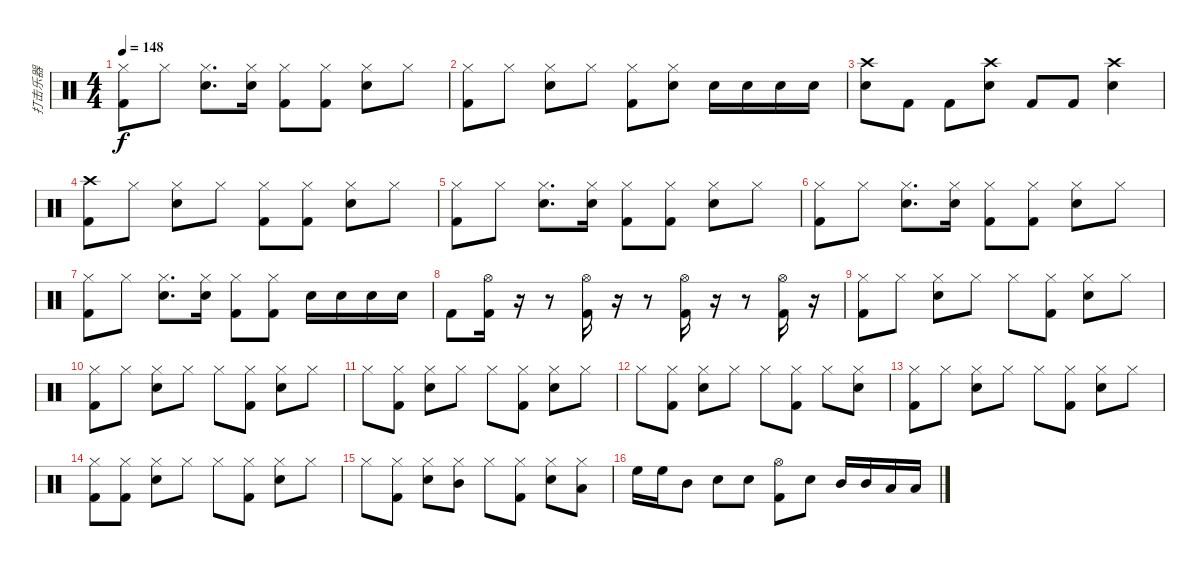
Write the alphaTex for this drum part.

\track ("打击乐器" "打击乐器") {instrument percussion}
\staff {score}
\articulation defaults
\ts (4 4)
\tempo 148
\clef neutral
\ks c
("Hi-Hat (closed)" "Kick (hit) 2").8{dy f} "Hi-Hat (closed)".8 ("Hi-Hat (closed)" "Electric Snare (hit)").8{d} ("Hi-Hat (closed)" "Electric Snare (hit)").16 ("Hi-Hat (closed)" "Kick (hit) 2").8 ("Hi-Hat (closed)" "Kick (hit) 2").8 ("Hi-Hat (closed)" "Electric Snare (hit)").8 "Hi-Hat (closed)".8 |
("Hi-Hat (closed)" "Kick (hit) 2").8 "Hi-Hat (closed)".8 ("Hi-Hat (closed)" "Electric Snare (hit)").8 "Hi-Hat (closed)".8 ("Hi-Hat (closed)" "Kick (hit) 2").8 ("Hi-Hat (closed)" "Electric Snare (hit)").8 "Electric Snare (hit)".16 "Electric Snare (hit)".16 "Electric Snare (hit)".16 "Electric Snare (hit)".16 |
("Crash high (hit)" "Electric Snare (hit)").8 "Kick (hit) 2".8 "Kick (hit) 2".8 ("Crash high (hit)" "Electric Snare (hit)").8 "Kick (hit) 2".8 "Kick (hit) 2".8 ("Crash high (hit)" "Electric Snare (hit)").4 |
("Crash high (hit)" "Kick (hit) 2").8 "Hi-Hat (closed)".8 ("Hi-Hat (closed)" "Electric Snare (hit)").8 "Hi-Hat (closed)".8 ("Hi-Hat (closed)" "Kick (hit) 2").8 ("Hi-Hat (closed)" "Kick (hit) 2").8 ("Hi-Hat (closed)" "Electric Snare (hit)").8 "Hi-Hat (closed)".8 |
("Hi-Hat (closed)" "Kick (hit) 2").8 "Hi-Hat (closed)".8 ("Hi-Hat (closed)" "Electric Snare (hit)").8{d} ("Hi-Hat (closed)" "Electric Snare (hit)").16 ("Hi-Hat (closed)" "Kick (hit) 2").8 ("Hi-Hat (closed)" "Kick (hit) 2").8 ("Hi-Hat (closed)" "Electric Snare (hit)").8 "Hi-Hat (closed)".8 |
("Hi-Hat (closed)" "Kick (hit) 2").8 "Hi-Hat (closed)".8 ("Hi-Hat (closed)" "Electric Snare (hit)").8{d} ("Hi-Hat (closed)" "Electric Snare (hit)").16 ("Hi-Hat (closed)" "Kick (hit) 2").8 ("Hi-Hat (closed)" "Kick (hit) 2").8 ("Hi-Hat (closed)" "Electric Snare (hit)").8 "Hi-Hat (closed)".8 |
("Hi-Hat (closed)" "Kick (hit) 2").8 "Hi-Hat (closed)".8 ("Hi-Hat (closed)" "Electric Snare (hit)").8{d} ("Hi-Hat (closed)" "Electric Snare (hit)").16 ("Hi-Hat (closed)" "Kick (hit) 2").8 ("Hi-Hat (closed)" "Kick (hit) 2").8 "Electric Snare (hit)".16 "Electric Snare (hit)".16 "Electric Snare (hit)".16 "Electric Snare (hit)".16 |
"Kick (hit) 2".8 ("Hi-Hat (open)" "Kick (hit) 2").16 r.16 r.8 ("Hi-Hat (open)" "Kick (hit) 2").16 r.16 r.8 ("Hi-Hat (open)" "Kick (hit) 2").16 r.16 r.8 ("Hi-Hat (open)" "Kick (hit) 2").16 r.16 |
("Hi-Hat (closed)" "Kick (hit) 2").8 "Hi-Hat (closed)".8 ("Hi-Hat (closed)" "Electric Snare (hit)").8 "Hi-Hat (closed)".8 "Hi-Hat (closed)".8 ("Hi-Hat (closed)" "Kick (hit) 2").8 ("Hi-Hat (closed)" "Electric Snare (hit)").8 "Hi-Hat (closed)".8 |
("Hi-Hat (closed)" "Kick (hit) 2").8 "Hi-Hat (closed)".8 ("Hi-Hat (closed)" "Electric Snare (hit)").8 "Hi-Hat (closed)".8 "Hi-Hat (closed)".8 ("Hi-Hat (closed)" "Kick (hit) 2").8 ("Hi-Hat (closed)" "Electric Snare (hit)").8 "Hi-Hat (closed)".8 |
"Hi-Hat (closed)".8 ("Hi-Hat (closed)" "Kick (hit) 2").8 ("Hi-Hat (closed)" "Electric Snare (hit)").8 "Hi-Hat (closed)".8 "Hi-Hat (closed)".8 ("Hi-Hat (closed)" "Kick (hit) 2").8 ("Hi-Hat (closed)" "Electric Snare (hit)").8 "Hi-Hat (closed)".8 |
"Hi-Hat (closed)".8 ("Hi-Hat (closed)" "Kick (hit) 2").8 ("Hi-Hat (closed)" "Electric Snare (hit)").8 "Hi-Hat (closed)".8 "Hi-Hat (closed)".8 ("Hi-Hat (closed)" "Kick (hit) 2").8 "Hi-Hat (closed)".8 ("Hi-Hat (closed)" "Electric Snare (hit)").8 |
("Hi-Hat (closed)" "Kick (hit) 2").8 "Hi-Hat (closed)".8 ("Hi-Hat (closed)" "Electric Snare (hit)").8 "Hi-Hat (closed)".8 "Hi-Hat (closed)".8 ("Hi-Hat (closed)" "Kick (hit) 2").8 ("Hi-Hat (closed)" "Electric Snare (hit)").8 "Hi-Hat (closed)".8 |
("Hi-Hat (closed)" "Kick (hit) 2").8 ("Hi-Hat (closed)" "Kick (hit) 2").8 ("Hi-Hat (closed)" "Electric Snare (hit)").8 "Hi-Hat (closed)".8 "Hi-Hat (closed)".8 ("Hi-Hat (closed)" "Kick (hit) 2").8 ("Hi-Hat (closed)" "Electric Snare (hit)").8 "Hi-Hat (closed)".8 |
"Hi-Hat (closed)".8 ("Hi-Hat (closed)" "Kick (hit) 2").8 ("Hi-Hat (closed)" "Electric Snare (hit)").8 ("Hi-Hat (closed)" "Mid Tom (hit)").8 "Hi-Hat (closed)".8 ("Hi-Hat (closed)" "Kick (hit) 2").8 ("Hi-Hat (closed)" "Electric Snare (hit)").8 ("Hi-Hat (closed)" "Low Tom (hit)").8 |
"High Floor Tom (hit)".16 "High Floor Tom (hit)".16 "Mid Tom (hit)".8 "Electric Snare (hit)".8 "Electric Snare (hit)".8 ("Kick (hit) 2" "Hi-Hat (open)").8 "Electric Snare (hit)".8 "Mid Tom (hit)".16 "Mid Tom (hit)".16 "Low Tom (hit)".16 "Low Tom (hit)".16
